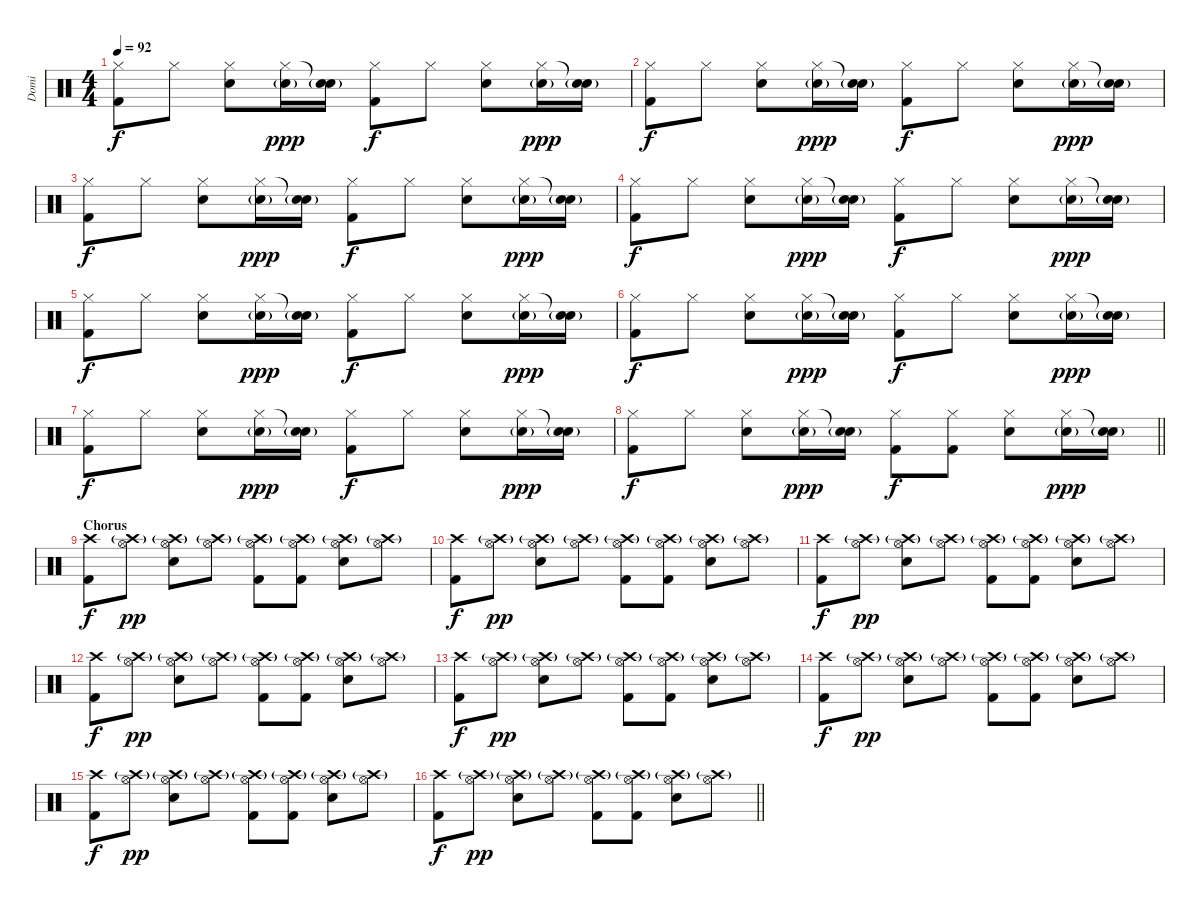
\track ("Domi" "Domi") {instrument percussion}
\staff {score}
\articulation defaults
\ts (4 4)
\tempo 92
\clef neutral
\ks c
("Hi-Hat (closed)" "Kick (hit) 2").8{dy f} "Hi-Hat (closed)".8 ("Hi-Hat (closed)" "Electric Snare (hit)").8 ("Hi-Hat (closed)" "Electric Snare (hit)"{g}).16{dy ppp} ("Snare (hit)"{t} "Electric Snare (hit)"{g}).16 ("Hi-Hat (closed)" "Kick (hit) 2").8{dy f} "Hi-Hat (closed)".8 ("Hi-Hat (closed)" "Electric Snare (hit)").8 ("Hi-Hat (closed)" "Electric Snare (hit)"{g}).16{dy ppp} ("Snare (hit)"{t} "Electric Snare (hit)"{g}).16 |
("Hi-Hat (closed)" "Kick (hit) 2").8{dy f} "Hi-Hat (closed)".8 ("Hi-Hat (closed)" "Electric Snare (hit)").8 ("Hi-Hat (closed)" "Electric Snare (hit)"{g}).16{dy ppp} ("Snare (hit)"{t} "Electric Snare (hit)"{g}).16 ("Hi-Hat (closed)" "Kick (hit) 2").8{dy f} "Hi-Hat (closed)".8 ("Hi-Hat (closed)" "Electric Snare (hit)").8 ("Hi-Hat (closed)" "Electric Snare (hit)"{g}).16{dy ppp} ("Snare (hit)"{t} "Electric Snare (hit)"{g}).16 |
("Hi-Hat (closed)" "Kick (hit) 2").8{dy f} "Hi-Hat (closed)".8 ("Hi-Hat (closed)" "Electric Snare (hit)").8 ("Hi-Hat (closed)" "Electric Snare (hit)"{g}).16{dy ppp} ("Snare (hit)"{t} "Electric Snare (hit)"{g}).16 ("Hi-Hat (closed)" "Kick (hit) 2").8{dy f} "Hi-Hat (closed)".8 ("Hi-Hat (closed)" "Electric Snare (hit)").8 ("Hi-Hat (closed)" "Electric Snare (hit)"{g}).16{dy ppp} ("Snare (hit)"{t} "Electric Snare (hit)"{g}).16 |
("Hi-Hat (closed)" "Kick (hit) 2").8{dy f} "Hi-Hat (closed)".8 ("Hi-Hat (closed)" "Electric Snare (hit)").8 ("Hi-Hat (closed)" "Electric Snare (hit)"{g}).16{dy ppp} ("Snare (hit)"{t} "Electric Snare (hit)"{g}).16 ("Hi-Hat (closed)" "Kick (hit) 2").8{dy f} "Hi-Hat (closed)".8 ("Hi-Hat (closed)" "Electric Snare (hit)").8 ("Hi-Hat (closed)" "Electric Snare (hit)"{g}).16{dy ppp} ("Snare (hit)"{t} "Electric Snare (hit)"{g}).16 |
("Hi-Hat (closed)" "Kick (hit) 2").8{dy f} "Hi-Hat (closed)".8 ("Hi-Hat (closed)" "Electric Snare (hit)").8 ("Hi-Hat (closed)" "Electric Snare (hit)"{g}).16{dy ppp} ("Snare (hit)"{t} "Electric Snare (hit)"{g}).16 ("Hi-Hat (closed)" "Kick (hit) 2").8{dy f} "Hi-Hat (closed)".8 ("Hi-Hat (closed)" "Electric Snare (hit)").8 ("Hi-Hat (closed)" "Electric Snare (hit)"{g}).16{dy ppp} ("Snare (hit)"{t} "Electric Snare (hit)"{g}).16 |
("Hi-Hat (closed)" "Kick (hit) 2").8{dy f} "Hi-Hat (closed)".8 ("Hi-Hat (closed)" "Electric Snare (hit)").8 ("Hi-Hat (closed)" "Electric Snare (hit)"{g}).16{dy ppp} ("Snare (hit)"{t} "Electric Snare (hit)"{g}).16 ("Hi-Hat (closed)" "Kick (hit) 2").8{dy f} "Hi-Hat (closed)".8 ("Hi-Hat (closed)" "Electric Snare (hit)").8 ("Hi-Hat (closed)" "Electric Snare (hit)"{g}).16{dy ppp} ("Snare (hit)"{t} "Electric Snare (hit)"{g}).16 |
("Hi-Hat (closed)" "Kick (hit) 2").8{dy f} "Hi-Hat (closed)".8 ("Hi-Hat (closed)" "Electric Snare (hit)").8 ("Hi-Hat (closed)" "Electric Snare (hit)"{g}).16{dy ppp} ("Snare (hit)"{t} "Electric Snare (hit)"{g}).16 ("Hi-Hat (closed)" "Kick (hit) 2").8{dy f} "Hi-Hat (closed)".8 ("Hi-Hat (closed)" "Electric Snare (hit)").8 ("Hi-Hat (closed)" "Electric Snare (hit)"{g}).16{dy ppp} ("Snare (hit)"{t} "Electric Snare (hit)"{g}).16 |
\barLineRight lightlight
("Hi-Hat (closed)" "Kick (hit) 2").8{dy f} "Hi-Hat (closed)".8 ("Hi-Hat (closed)" "Electric Snare (hit)").8 ("Hi-Hat (closed)" "Electric Snare (hit)"{g}).16{dy ppp} ("Snare (hit)"{t} "Electric Snare (hit)"{g}).16 ("Hi-Hat (closed)" "Kick (hit) 2").8{dy f} ("Hi-Hat (closed)" "Kick (hit) 2").8 ("Hi-Hat (closed)" "Electric Snare (hit)").8 ("Hi-Hat (closed)" "Electric Snare (hit)"{g}).16{dy ppp} ("Snare (hit)"{t} "Electric Snare (hit)"{g}).16 |
\section ("" "Chorus")
("Crash high (hit)" "Kick (hit) 2").8{dy f} ("Hi-Hat (open)" "Crash high (hit)"{g}).8{dy pp} ("Hi-Hat (open)" "Crash high (hit)"{g} "Electric Snare (hit)").8 ("Hi-Hat (open)" "Crash high (hit)"{g}).8 ("Hi-Hat (open)" "Crash high (hit)"{g} "Kick (hit) 2").8 ("Hi-Hat (open)" "Crash high (hit)"{g} "Kick (hit) 2").8 ("Hi-Hat (open)" "Crash high (hit)"{g} "Electric Snare (hit)").8 ("Hi-Hat (open)" "Crash high (hit)"{g}).8 |
("Crash high (hit)" "Kick (hit) 2").8{dy f} ("Hi-Hat (open)" "Crash high (hit)"{g}).8{dy pp} ("Hi-Hat (open)" "Crash high (hit)"{g} "Electric Snare (hit)").8 ("Hi-Hat (open)" "Crash high (hit)"{g}).8 ("Hi-Hat (open)" "Crash high (hit)"{g} "Kick (hit) 2").8 ("Hi-Hat (open)" "Crash high (hit)"{g} "Kick (hit) 2").8 ("Hi-Hat (open)" "Crash high (hit)"{g} "Electric Snare (hit)").8 ("Hi-Hat (open)" "Crash high (hit)"{g}).8 |
("Crash high (hit)" "Kick (hit) 2").8{dy f} ("Hi-Hat (open)" "Crash high (hit)"{g}).8{dy pp} ("Hi-Hat (open)" "Crash high (hit)"{g} "Electric Snare (hit)").8 ("Hi-Hat (open)" "Crash high (hit)"{g}).8 ("Hi-Hat (open)" "Crash high (hit)"{g} "Kick (hit) 2").8 ("Hi-Hat (open)" "Crash high (hit)"{g} "Kick (hit) 2").8 ("Hi-Hat (open)" "Crash high (hit)"{g} "Electric Snare (hit)").8 ("Hi-Hat (open)" "Crash high (hit)"{g}).8 |
("Crash high (hit)" "Kick (hit) 2").8{dy f} ("Hi-Hat (open)" "Crash high (hit)"{g}).8{dy pp} ("Hi-Hat (open)" "Crash high (hit)"{g} "Electric Snare (hit)").8 ("Hi-Hat (open)" "Crash high (hit)"{g}).8 ("Hi-Hat (open)" "Crash high (hit)"{g} "Kick (hit) 2").8 ("Hi-Hat (open)" "Crash high (hit)"{g} "Kick (hit) 2").8 ("Hi-Hat (open)" "Crash high (hit)"{g} "Electric Snare (hit)").8 ("Hi-Hat (open)" "Crash high (hit)"{g}).8 |
("Crash high (hit)" "Kick (hit) 2").8{dy f} ("Hi-Hat (open)" "Crash high (hit)"{g}).8{dy pp} ("Hi-Hat (open)" "Crash high (hit)"{g} "Electric Snare (hit)").8 ("Hi-Hat (open)" "Crash high (hit)"{g}).8 ("Hi-Hat (open)" "Crash high (hit)"{g} "Kick (hit) 2").8 ("Hi-Hat (open)" "Crash high (hit)"{g} "Kick (hit) 2").8 ("Hi-Hat (open)" "Crash high (hit)"{g} "Electric Snare (hit)").8 ("Hi-Hat (open)" "Crash high (hit)"{g}).8 |
("Crash high (hit)" "Kick (hit) 2").8{dy f} ("Hi-Hat (open)" "Crash high (hit)"{g}).8{dy pp} ("Hi-Hat (open)" "Crash high (hit)"{g} "Electric Snare (hit)").8 ("Hi-Hat (open)" "Crash high (hit)"{g}).8 ("Hi-Hat (open)" "Crash high (hit)"{g} "Kick (hit) 2").8 ("Hi-Hat (open)" "Crash high (hit)"{g} "Kick (hit) 2").8 ("Hi-Hat (open)" "Crash high (hit)"{g} "Electric Snare (hit)").8 ("Hi-Hat (open)" "Crash high (hit)"{g}).8 |
("Crash high (hit)" "Kick (hit) 2").8{dy f} ("Hi-Hat (open)" "Crash high (hit)"{g}).8{dy pp} ("Hi-Hat (open)" "Crash high (hit)"{g} "Electric Snare (hit)").8 ("Hi-Hat (open)" "Crash high (hit)"{g}).8 ("Hi-Hat (open)" "Crash high (hit)"{g} "Kick (hit) 2").8 ("Hi-Hat (open)" "Crash high (hit)"{g} "Kick (hit) 2").8 ("Hi-Hat (open)" "Crash high (hit)"{g} "Electric Snare (hit)").8 ("Hi-Hat (open)" "Crash high (hit)"{g}).8 |
\barLineRight lightlight
("Crash high (hit)" "Kick (hit) 2").8{dy f} ("Hi-Hat (open)" "Crash high (hit)"{g}).8{dy pp} ("Hi-Hat (open)" "Crash high (hit)"{g} "Electric Snare (hit)").8 ("Hi-Hat (open)" "Crash high (hit)"{g}).8 ("Hi-Hat (open)" "Crash high (hit)"{g} "Kick (hit) 2").8 ("Hi-Hat (open)" "Crash high (hit)"{g} "Kick (hit) 2").8 ("Hi-Hat (open)" "Crash high (hit)"{g} "Electric Snare (hit)").8 ("Hi-Hat (open)" "Crash high (hit)"{g}).8
